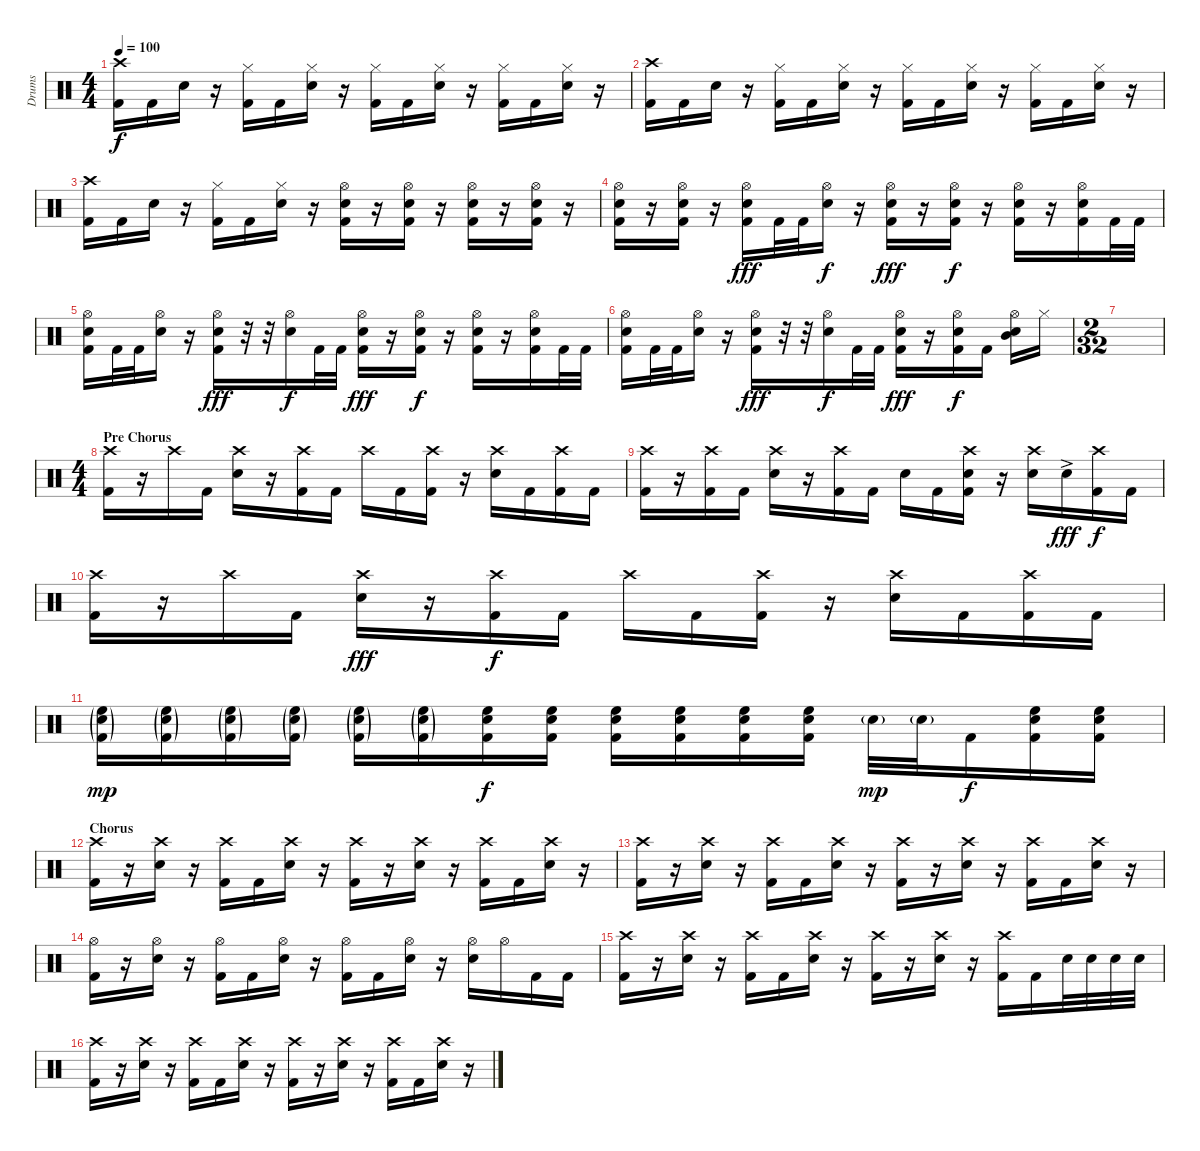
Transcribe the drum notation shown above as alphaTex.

\track ("Drums" "Drums") {instrument percussion}
\staff {score}
\articulation defaults
\ts (4 4)
\tempo 100
\clef neutral
\ks c
("Crash high (hit)" "Kick (hit) 2").16{dy f} "Kick (hit) 2".16 "Electric Snare (hit)".16 r.16 ("Hi-Hat (closed)" "Kick (hit) 2").16 "Kick (hit) 2".16 ("Hi-Hat (closed)" "Electric Snare (hit)").16 r.16 ("Hi-Hat (closed)" "Kick (hit) 2").16 "Kick (hit) 2".16 ("Hi-Hat (closed)" "Electric Snare (hit)").16 r.16 ("Hi-Hat (closed)" "Kick (hit) 2").16 "Kick (hit) 2".16 ("Hi-Hat (closed)" "Electric Snare (hit)").16 r.16 |
("Crash high (hit)" "Kick (hit) 2").16 "Kick (hit) 2".16 "Electric Snare (hit)".16 r.16 ("Hi-Hat (closed)" "Kick (hit) 2").16 "Kick (hit) 2".16 ("Hi-Hat (closed)" "Electric Snare (hit)").16 r.16 ("Hi-Hat (closed)" "Kick (hit) 2").16 "Kick (hit) 2".16 ("Hi-Hat (closed)" "Electric Snare (hit)").16 r.16 ("Hi-Hat (closed)" "Kick (hit) 2").16 "Kick (hit) 2".16 ("Hi-Hat (closed)" "Electric Snare (hit)").16 r.16 |
("Crash high (hit)" "Kick (hit) 2").16 "Kick (hit) 2".16 "Electric Snare (hit)".16 r.16 ("Hi-Hat (closed)" "Kick (hit) 2").16 "Kick (hit) 2".16 ("Hi-Hat (closed)" "Electric Snare (hit)").16 r.16 ("Hi-Hat (open)" "Electric Snare (hit)" "Kick (hit) 2").16 r.16 ("Hi-Hat (open)" "Electric Snare (hit)" "Kick (hit) 2").16 r.16 ("Hi-Hat (open)" "Electric Snare (hit)" "Kick (hit) 2").16 r.16 ("Hi-Hat (open)" "Electric Snare (hit)" "Kick (hit) 2").16 r.16 |
("Hi-Hat (open)" "Electric Snare (hit)" "Kick (hit) 2").16 r.16 ("Hi-Hat (open)" "Electric Snare (hit)" "Kick (hit) 2").16 r.16 ("Hi-Hat (open)" "Electric Snare (hit)" "Kick (hit) 2").16{dy fff} "Kick (hit) 2".32 "Kick (hit) 2".32 ("Hi-Hat (open)" "Electric Snare (hit)").16{dy f} r.16 ("Hi-Hat (open)" "Electric Snare (hit)" "Kick (hit) 2").16{dy fff} r.16 ("Hi-Hat (open)" "Electric Snare (hit)" "Kick (hit) 2").16{dy f} r.16 ("Hi-Hat (open)" "Electric Snare (hit)" "Kick (hit) 2").16 r.16 ("Hi-Hat (open)" "Electric Snare (hit)" "Kick (hit) 2").16 "Kick (hit) 2".32 "Kick (hit) 2".32 |
("Hi-Hat (open)" "Electric Snare (hit)" "Kick (hit) 2").16 "Kick (hit) 2".32 "Kick (hit) 2".32 ("Hi-Hat (open)" "Electric Snare (hit)").16 r.16 ("Hi-Hat (open)" "Electric Snare (hit)" "Kick (hit) 2").16{dy fff} r.32 r.32 ("Hi-Hat (open)" "Electric Snare (hit)").16{dy f} "Kick (hit) 2".32 "Kick (hit) 2".32 ("Hi-Hat (open)" "Electric Snare (hit)" "Kick (hit) 2").16{dy fff} r.16 ("Hi-Hat (open)" "Electric Snare (hit)" "Kick (hit) 2").16{dy f} r.16 ("Hi-Hat (open)" "Electric Snare (hit)" "Kick (hit) 2").16 r.16 ("Hi-Hat (open)" "Electric Snare (hit)" "Kick (hit) 2").16 "Kick (hit) 2".32 "Kick (hit) 2".32 |
("Hi-Hat (open)" "Electric Snare (hit)" "Kick (hit) 2").16 "Kick (hit) 2".32 "Kick (hit) 2".32 ("Hi-Hat (open)" "Electric Snare (hit)").16 r.16 ("Hi-Hat (open)" "Electric Snare (hit)" "Kick (hit) 2").16{dy fff} r.32 r.32 ("Hi-Hat (open)" "Electric Snare (hit)").16{dy f} "Kick (hit) 2".32 "Kick (hit) 2".32 ("Hi-Hat (open)" "Electric Snare (hit)" "Kick (hit) 2").16{dy fff} r.16 ("Hi-Hat (open)" "Electric Snare (hit)" "Kick (hit) 2").16{dy f} "Kick (hit) 2".16 ("Hi-Hat (open)" "Mid Tom (hit)" "Electric Snare (hit)").16 "Hi-Hat (closed)"{x}.16 |
\ts (2 32)
|
\ts (4 4)
\section ("" "Pre Chorus")
("Crash high (hit)" "Kick (hit) 2").16 r.16 "Crash high (hit)".16 "Kick (hit) 2".16 ("Crash high (hit)" "Electric Snare (hit)").16 r.16 ("Crash high (hit)" "Kick (hit) 2").16 "Kick (hit) 2".16 "Crash high (hit)".16 "Kick (hit) 2".16 ("Crash high (hit)" "Kick (hit) 2").16 r.16 ("Crash high (hit)" "Electric Snare (hit)").16 "Kick (hit) 2".16 ("Crash high (hit)" "Kick (hit) 2").16 "Kick (hit) 2".16 |
("Crash high (hit)" "Kick (hit) 2").16 r.16 ("Crash high (hit)" "Kick (hit) 2").16 "Kick (hit) 2".16 ("Crash high (hit)" "Electric Snare (hit)").16 r.16 ("Crash high (hit)" "Kick (hit) 2").16 "Kick (hit) 2".16 "Electric Snare (hit)".16 "Kick (hit) 2".16 ("Crash high (hit)" "Electric Snare (hit)" "Kick (hit) 2").16 r.16 ("Crash high (hit)" "Electric Snare (hit)").16 "Electric Snare (hit)"{ac}.16{dy fff} ("Crash high (hit)" "Kick (hit) 2").16{dy f} "Kick (hit) 2".16 |
("Crash high (hit)" "Kick (hit) 2").16 r.16 "Crash high (hit)".16 "Kick (hit) 2".16 ("Crash high (hit)" "Electric Snare (hit)").16{dy fff} r.16 ("Crash high (hit)" "Kick (hit) 2").16{dy f} "Kick (hit) 2".16 "Crash high (hit)".16 "Kick (hit) 2".16 ("Crash high (hit)" "Kick (hit) 2").16 r.16 ("Crash high (hit)" "Electric Snare (hit)").16 "Kick (hit) 2".16 ("Crash high (hit)" "Kick (hit) 2").16 "Kick (hit) 2".16 |
("High Floor Tom (hit)"{g} "Electric Snare (hit)"{g} "Kick (hit) 2"{g}).16{dy mp} ("High Floor Tom (hit)"{g} "Electric Snare (hit)"{g} "Kick (hit) 2"{g}).16 ("High Floor Tom (hit)"{g} "Electric Snare (hit)"{g} "Kick (hit) 2"{g}).16 ("High Floor Tom (hit)"{g} "Electric Snare (hit)"{g} "Kick (hit) 2"{g}).16 ("High Floor Tom (hit)"{g} "Electric Snare (hit)"{g} "Kick (hit) 2"{g}).16 ("High Floor Tom (hit)"{g} "Electric Snare (hit)"{g} "Kick (hit) 2"{g}).16 ("High Floor Tom (hit)" "Electric Snare (hit)" "Kick (hit) 2").16{dy f} ("High Floor Tom (hit)" "Electric Snare (hit)" "Kick (hit) 2").16 ("High Floor Tom (hit)" "Electric Snare (hit)" "Kick (hit) 2").16 ("High Floor Tom (hit)" "Electric Snare (hit)" "Kick (hit) 2").16 ("High Floor Tom (hit)" "Electric Snare (hit)" "Kick (hit) 2").16 ("High Floor Tom (hit)" "Electric Snare (hit)" "Kick (hit) 2").16 "Electric Snare (hit)"{g}.32{dy mp} "Electric Snare (hit)"{g}.32 "Kick (hit) 2".16{dy f} ("High Floor Tom (hit)" "Electric Snare (hit)" "Kick (hit) 2").16 ("High Floor Tom (hit)" "Electric Snare (hit)" "Kick (hit) 2").16 |
\section ("" "Chorus")
("Crash high (hit)" "Kick (hit) 2").16 r.16 ("Crash high (hit)" "Electric Snare (hit)").16 r.16 ("Crash high (hit)" "Kick (hit) 2").16 "Kick (hit) 2".16 ("Crash high (hit)" "Electric Snare (hit)").16 r.16 ("Crash high (hit)" "Kick (hit) 2").16 r.16 ("Crash high (hit)" "Electric Snare (hit)").16 r.16 ("Crash high (hit)" "Kick (hit) 2").16 "Kick (hit) 2".16 ("Crash high (hit)" "Electric Snare (hit)").16 r.16 |
("Crash high (hit)" "Kick (hit) 2").16 r.16 ("Crash high (hit)" "Electric Snare (hit)").16 r.16 ("Crash high (hit)" "Kick (hit) 2").16 "Kick (hit) 2".16 ("Crash high (hit)" "Electric Snare (hit)").16 r.16 ("Crash high (hit)" "Kick (hit) 2").16 r.16 ("Crash high (hit)" "Electric Snare (hit)").16 r.16 ("Crash high (hit)" "Kick (hit) 2").16 "Kick (hit) 2".16 ("Crash high (hit)" "Electric Snare (hit)").16 r.16 |
("Hi-Hat (open)" "Kick (hit) 2").16 r.16 ("Hi-Hat (open)" "Electric Snare (hit)").16 r.16 ("Hi-Hat (open)" "Kick (hit) 2").16 "Kick (hit) 2".16 ("Hi-Hat (open)" "Electric Snare (hit)").16 r.16 ("Hi-Hat (open)" "Kick (hit) 2").16 "Kick (hit) 2".16 ("Hi-Hat (open)" "Electric Snare (hit)").16 r.16 ("Hi-Hat (open)" "Electric Snare (hit)").16 "Hi-Hat (open)".16 "Kick (hit) 2".16 "Kick (hit) 2".16 |
("Crash high (hit)" "Kick (hit) 2").16 r.16 ("Crash high (hit)" "Electric Snare (hit)").16 r.16 ("Crash high (hit)" "Kick (hit) 2").16 "Kick (hit) 2".16 ("Crash high (hit)" "Electric Snare (hit)").16 r.16 ("Crash high (hit)" "Kick (hit) 2").16 r.16 ("Crash high (hit)" "Electric Snare (hit)").16 r.16 ("Crash high (hit)" "Kick (hit) 2").16 "Kick (hit) 2".16 "Electric Snare (hit)".32 "Electric Snare (hit)".32 "Electric Snare (hit)".32 "Electric Snare (hit)".32 |
("Crash high (hit)" "Kick (hit) 2").16 r.16 ("Crash high (hit)" "Electric Snare (hit)").16 r.16 ("Crash high (hit)" "Kick (hit) 2").16 "Kick (hit) 2".16 ("Crash high (hit)" "Electric Snare (hit)").16 r.16 ("Crash high (hit)" "Kick (hit) 2").16 r.16 ("Crash high (hit)" "Electric Snare (hit)").16 r.16 ("Crash high (hit)" "Kick (hit) 2").16 "Kick (hit) 2".16 ("Crash high (hit)" "Electric Snare (hit)").16 r.16
